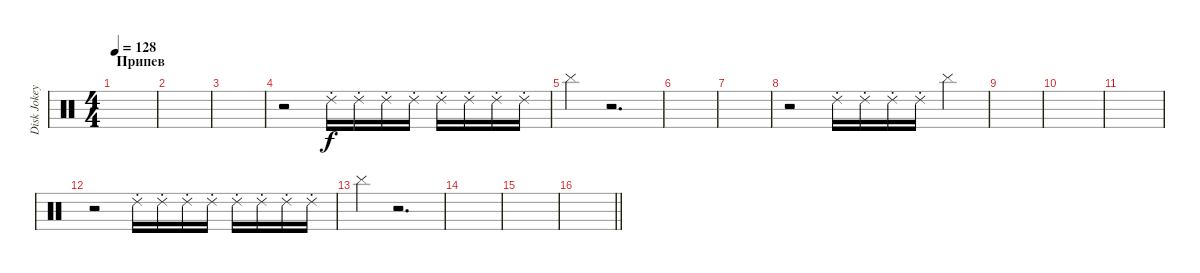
\track ("Disk Jokey" "Disk Jokey") {instrument percussion}
\staff {score}
\articulation defaults
\ts (4 4)
\section ("" "Припев")
\tempo 128
\clef neutral
\ks c
|
|
|
r.2 "Ride (choke) 2".16 "Ride (choke) 2".16 "Ride (choke) 2".16 "Ride (choke) 2".16 "Ride (choke) 2".16 "Ride (choke) 2".16 "Ride (choke) 2".16 "Ride (choke) 2".16 |
"Cymbal (hit)".4 r.2{d} |
|
|
r.2 "Ride (choke) 2".16 "Ride (choke) 2".16 "Ride (choke) 2".16 "Ride (choke) 2".16 "Cymbal (hit)".4 |
|
|
|
r.2 "Ride (choke) 2".16 "Ride (choke) 2".16 "Ride (choke) 2".16 "Ride (choke) 2".16 "Ride (choke) 2".16 "Ride (choke) 2".16 "Ride (choke) 2".16 "Ride (choke) 2".16 |
"Cymbal (hit)".4 r.2{d} |
|
|
\barLineRight lightlight
